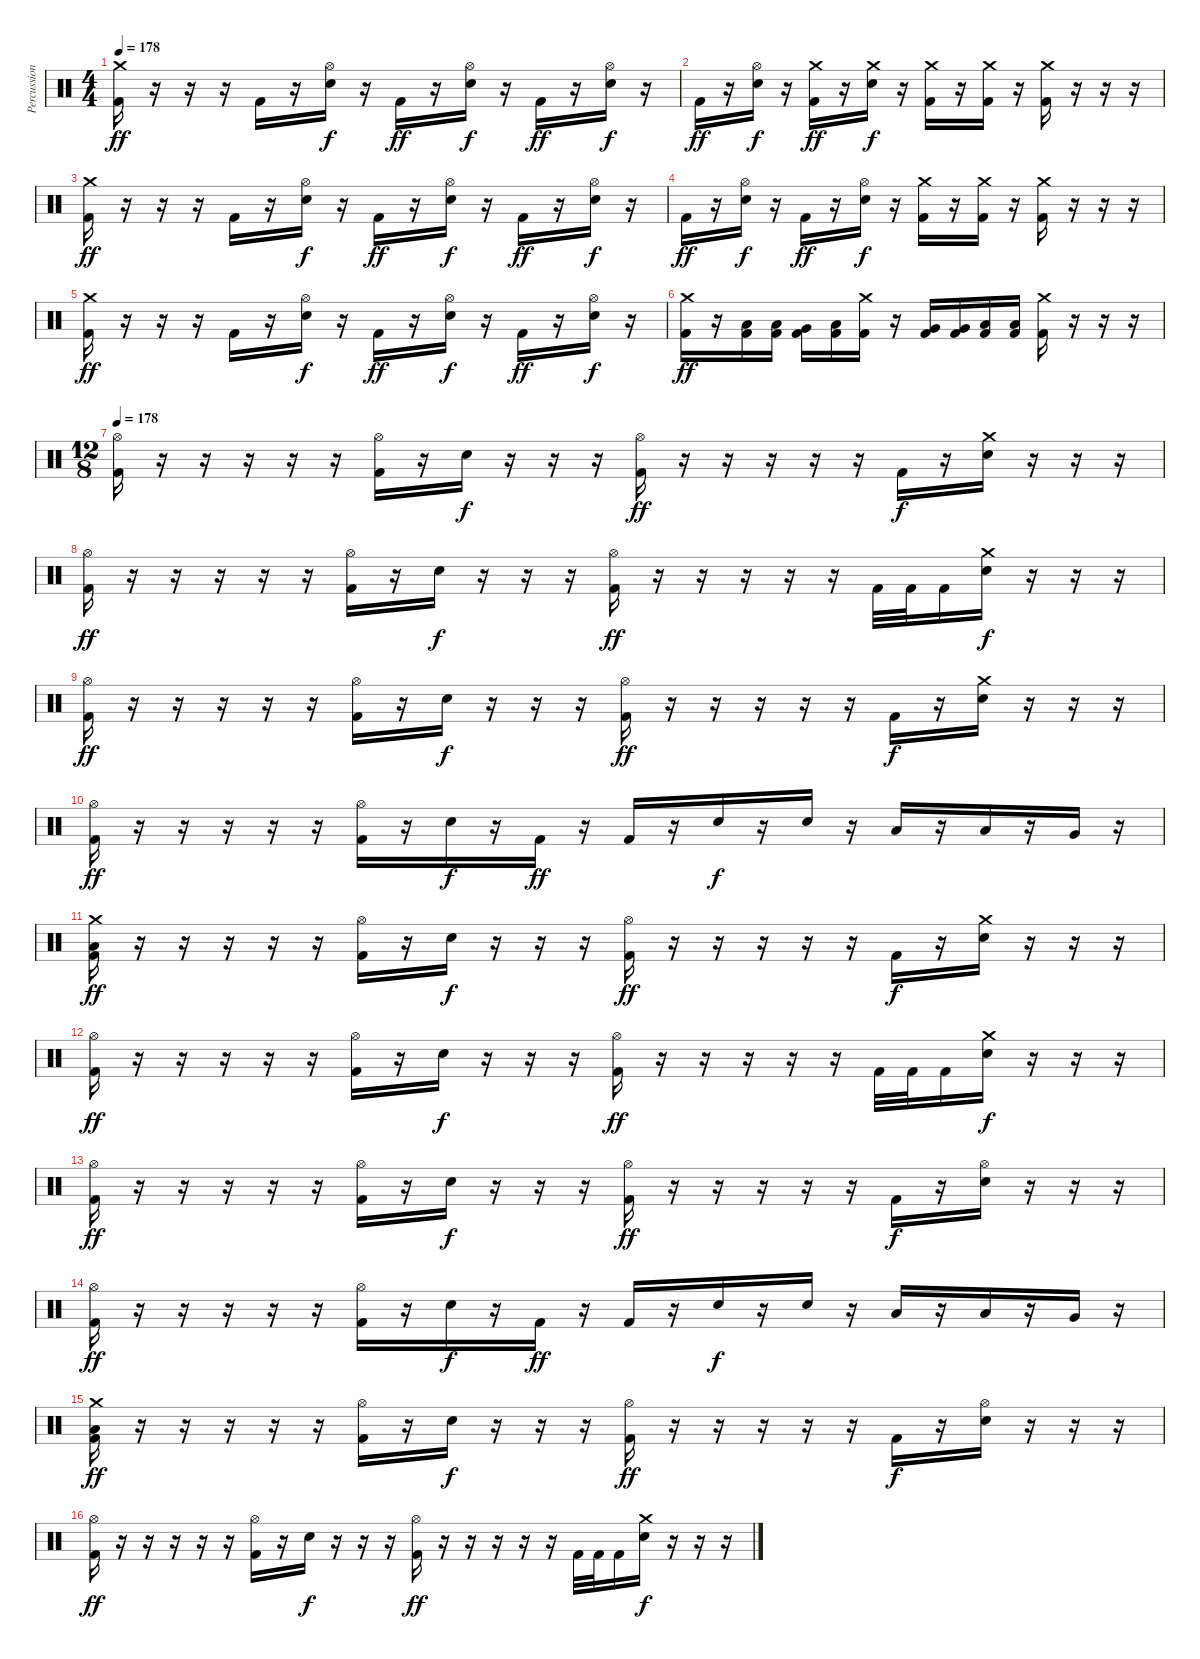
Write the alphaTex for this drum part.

\track ("Percussion" "Percussion") {instrument percussion}
\staff {score}
\articulation defaults
\ts (4 4)
\tempo 178
\clef neutral
\ks c
("Crash medium (hit)" "Kick (hit) 2").16{dy ff} r.16 r.16 r.16 "Kick (hit) 2".16 r.16 ("Hi-Hat (open)" "Electric Snare (hit)").16{dy f} r.16 "Kick (hit) 2".16{dy ff} r.16 ("Hi-Hat (open)" "Electric Snare (hit)").16{dy f} r.16 "Kick (hit) 2".16{dy ff} r.16 ("Hi-Hat (open)" "Electric Snare (hit)").16{dy f} r.16 |
"Kick (hit) 2".16{dy ff} r.16 ("Hi-Hat (open)" "Electric Snare (hit)").16{dy f} r.16 ("Crash medium (hit)" "Kick (hit) 2").16{dy ff} r.16 ("Crash medium (hit)" "Electric Snare (hit)").16{dy f} r.16 ("Crash medium (hit)" "Kick (hit) 2").16 r.16 ("Crash medium (hit)" "Kick (hit) 2").16 r.16 ("Crash medium (hit)" "Kick (hit) 2").16 r.16 r.16 r.16 |
("Crash medium (hit)" "Kick (hit) 2").16{dy ff} r.16 r.16 r.16 "Kick (hit) 2".16 r.16 ("Hi-Hat (open)" "Electric Snare (hit)").16{dy f} r.16 "Kick (hit) 2".16{dy ff} r.16 ("Hi-Hat (open)" "Electric Snare (hit)").16{dy f} r.16 "Kick (hit) 2".16{dy ff} r.16 ("Hi-Hat (open)" "Electric Snare (hit)").16{dy f} r.16 |
"Kick (hit) 2".16{dy ff} r.16 ("Hi-Hat (open)" "Electric Snare (hit)").16{dy f} r.16 "Kick (hit) 2".16{dy ff} r.16 ("Hi-Hat (open)" "Electric Snare (hit)").16{dy f} r.16 ("Crash medium (hit)" "Kick (hit) 2").16 r.16 ("Crash medium (hit)" "Kick (hit) 2").16 r.16 ("Crash medium (hit)" "Kick (hit) 2").16 r.16 r.16 r.16 |
("Crash medium (hit)" "Kick (hit) 2").16{dy ff} r.16 r.16 r.16 "Kick (hit) 2".16 r.16 ("Hi-Hat (open)" "Electric Snare (hit)").16{dy f} r.16 "Kick (hit) 2".16{dy ff} r.16 ("Hi-Hat (open)" "Electric Snare (hit)").16{dy f} r.16 "Kick (hit) 2".16{dy ff} r.16 ("Hi-Hat (open)" "Electric Snare (hit)").16{dy f} r.16 |
("Crash medium (hit)" "Kick (hit) 2").16{dy ff} r.16 ("Low Tom (hit)" "Kick (hit) 2").16 ("Low Tom (hit)" "Kick (hit) 2").16 ("Very Low Tom (hit)" "Kick (hit) 2").16 ("Low Tom (hit)" "Kick (hit) 2").16 ("Crash medium (hit)" "Kick (hit) 2").16 r.16 ("Very Low Tom (hit)" "Kick (hit) 2").16 ("Very Low Tom (hit)" "Kick (hit) 2").16 ("Low Floor Tom (hit)" "Kick (hit) 2").16 ("Low Floor Tom (hit)" "Kick (hit) 2").16 ("Crash medium (hit)" "Kick (hit) 2").16 r.16 r.16 r.16 |
\ts (12 8)
\tempo 178
("Hi-Hat (open)" "Kick (hit) 2").16 r.16 r.16 r.16 r.16 r.16 ("Hi-Hat (open)" "Kick (hit) 2").16 r.16 "Electric Snare (hit)".16{dy f} r.16 r.16 r.16 ("Hi-Hat (open)" "Kick (hit) 2").16{dy ff} r.16 r.16 r.16 r.16 r.16 "Kick (hit) 2".16{dy f} r.16 ("Crash medium (hit)" "Electric Snare (hit)").16 r.16 r.16 r.16 |
("Hi-Hat (open)" "Kick (hit) 2").16{dy ff} r.16 r.16 r.16 r.16 r.16 ("Hi-Hat (open)" "Kick (hit) 2").16 r.16 "Electric Snare (hit)".16{dy f} r.16 r.16 r.16 ("Hi-Hat (open)" "Kick (hit) 2").16{dy ff} r.16 r.16 r.16 r.16 r.16 "Kick (hit) 2".32 "Kick (hit) 2".32 "Kick (hit) 2".16 ("Crash medium (hit)" "Electric Snare (hit)").16{dy f} r.16 r.16 r.16 |
("Hi-Hat (open)" "Kick (hit) 2").16{dy ff} r.16 r.16 r.16 r.16 r.16 ("Hi-Hat (open)" "Kick (hit) 2").16 r.16 "Electric Snare (hit)".16{dy f} r.16 r.16 r.16 ("Hi-Hat (open)" "Kick (hit) 2").16{dy ff} r.16 r.16 r.16 r.16 r.16 "Kick (hit) 2".16{dy f} r.16 ("Crash medium (hit)" "Electric Snare (hit)").16 r.16 r.16 r.16 |
("Hi-Hat (open)" "Kick (hit) 2").16{dy ff} r.16 r.16 r.16 r.16 r.16 ("Hi-Hat (open)" "Kick (hit) 2").16 r.16 "Electric Snare (hit)".16{dy f} r.16 "Kick (hit) 2".16{dy ff} r.16 "Kick (hit) 2".16 r.16 "Electric Snare (hit)".16{dy f} r.16 "Electric Snare (hit)".16 r.16 "Low Tom (hit)".16 r.16 "Low Tom (hit)".16 r.16 "Very Low Tom (hit)".16 r.16 |
("Crash medium (hit)" "Low Floor Tom (hit)" "Kick (hit) 2").16{dy ff} r.16 r.16 r.16 r.16 r.16 ("Hi-Hat (open)" "Kick (hit) 2").16 r.16 "Electric Snare (hit)".16{dy f} r.16 r.16 r.16 ("Hi-Hat (open)" "Kick (hit) 2").16{dy ff} r.16 r.16 r.16 r.16 r.16 "Kick (hit) 2".16{dy f} r.16 ("Crash medium (hit)" "Electric Snare (hit)").16 r.16 r.16 r.16 |
("Hi-Hat (open)" "Kick (hit) 2").16{dy ff} r.16 r.16 r.16 r.16 r.16 ("Hi-Hat (open)" "Kick (hit) 2").16 r.16 "Electric Snare (hit)".16{dy f} r.16 r.16 r.16 ("Hi-Hat (open)" "Kick (hit) 2").16{dy ff} r.16 r.16 r.16 r.16 r.16 "Kick (hit) 2".32 "Kick (hit) 2".32 "Kick (hit) 2".16 ("Crash medium (hit)" "Electric Snare (hit)").16{dy f} r.16 r.16 r.16 |
("Hi-Hat (open)" "Kick (hit) 2").16{dy ff} r.16 r.16 r.16 r.16 r.16 ("Hi-Hat (open)" "Kick (hit) 2").16 r.16 "Electric Snare (hit)".16{dy f} r.16 r.16 r.16 ("Hi-Hat (open)" "Kick (hit) 2").16{dy ff} r.16 r.16 r.16 r.16 r.16 "Kick (hit) 2".16{dy f} r.16 ("Hi-Hat (open)" "Electric Snare (hit)").16 r.16 r.16 r.16 |
("Hi-Hat (open)" "Kick (hit) 2").16{dy ff} r.16 r.16 r.16 r.16 r.16 ("Hi-Hat (open)" "Kick (hit) 2").16 r.16 "Electric Snare (hit)".16{dy f} r.16 "Kick (hit) 2".16{dy ff} r.16 "Kick (hit) 2".16 r.16 "Electric Snare (hit)".16{dy f} r.16 "Electric Snare (hit)".16 r.16 "Low Tom (hit)".16 r.16 "Low Tom (hit)".16 r.16 "Very Low Tom (hit)".16 r.16 |
("Crash medium (hit)" "Low Floor Tom (hit)" "Kick (hit) 2").16{dy ff} r.16 r.16 r.16 r.16 r.16 ("Hi-Hat (open)" "Kick (hit) 2").16 r.16 "Electric Snare (hit)".16{dy f} r.16 r.16 r.16 ("Hi-Hat (open)" "Kick (hit) 2").16{dy ff} r.16 r.16 r.16 r.16 r.16 "Kick (hit) 2".16{dy f} r.16 ("Hi-Hat (open)" "Electric Snare (hit)").16 r.16 r.16 r.16 |
("Hi-Hat (open)" "Kick (hit) 2").16{dy ff} r.16 r.16 r.16 r.16 r.16 ("Hi-Hat (open)" "Kick (hit) 2").16 r.16 "Electric Snare (hit)".16{dy f} r.16 r.16 r.16 ("Hi-Hat (open)" "Kick (hit) 2").16{dy ff} r.16 r.16 r.16 r.16 r.16 "Kick (hit) 2".32 "Kick (hit) 2".32 "Kick (hit) 2".16 ("Crash medium (hit)" "Electric Snare (hit)").16{dy f} r.16 r.16 r.16
